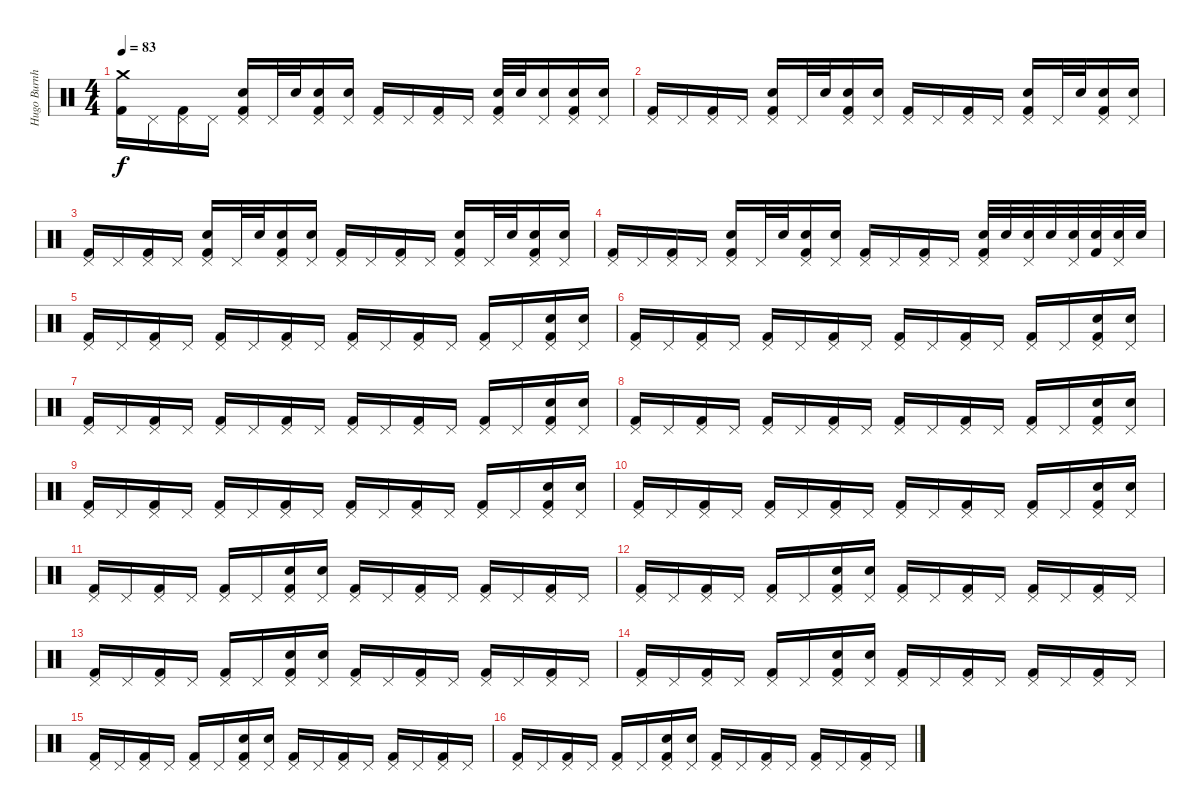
\track ("Hugo Burnham" "Hugo Burnh") {instrument percussion}
\staff {score}
\articulation defaults
\ts (4 4)
\tempo 83
\clef neutral
\ks c
("Crash medium (hit)" "Kick (hit) 2").16{dy f} "Pedal Hi-Hat (hit)".16 ("Pedal Hi-Hat (hit)" "Kick (hit) 2").16 "Pedal Hi-Hat (hit)".16 ("Pedal Hi-Hat (hit)" "Electric Snare (hit)" "Kick (hit) 2").16 "Pedal Hi-Hat (hit)".32 "Electric Snare (hit)".32 ("Pedal Hi-Hat (hit)" "Electric Snare (hit)" "Kick (hit) 2").16 ("Pedal Hi-Hat (hit)" "Electric Snare (hit)").16 ("Pedal Hi-Hat (hit)" "Kick (hit) 2").16 "Pedal Hi-Hat (hit)".16 ("Pedal Hi-Hat (hit)" "Kick (hit) 2").16 "Pedal Hi-Hat (hit)".16 ("Pedal Hi-Hat (hit)" "Electric Snare (hit)" "Kick (hit) 2").32 "Electric Snare (hit)".32 ("Pedal Hi-Hat (hit)" "Electric Snare (hit)").16 ("Pedal Hi-Hat (hit)" "Electric Snare (hit)" "Kick (hit) 2").16 ("Pedal Hi-Hat (hit)" "Electric Snare (hit)").16 |
("Pedal Hi-Hat (hit)" "Kick (hit) 2").16 "Pedal Hi-Hat (hit)".16 ("Pedal Hi-Hat (hit)" "Kick (hit) 2").16 "Pedal Hi-Hat (hit)".16 ("Pedal Hi-Hat (hit)" "Electric Snare (hit)" "Kick (hit) 2").16 "Pedal Hi-Hat (hit)".32 "Electric Snare (hit)".32 ("Pedal Hi-Hat (hit)" "Electric Snare (hit)" "Kick (hit) 2").16 ("Pedal Hi-Hat (hit)" "Electric Snare (hit)").16 ("Pedal Hi-Hat (hit)" "Kick (hit) 2").16 "Pedal Hi-Hat (hit)".16 ("Pedal Hi-Hat (hit)" "Kick (hit) 2").16 "Pedal Hi-Hat (hit)".16 ("Pedal Hi-Hat (hit)" "Electric Snare (hit)" "Kick (hit) 2").16 "Pedal Hi-Hat (hit)".32 "Electric Snare (hit)".32 ("Pedal Hi-Hat (hit)" "Electric Snare (hit)" "Kick (hit) 2").16 ("Pedal Hi-Hat (hit)" "Electric Snare (hit)").16 |
("Pedal Hi-Hat (hit)" "Kick (hit) 2").16 "Pedal Hi-Hat (hit)".16 ("Pedal Hi-Hat (hit)" "Kick (hit) 2").16 "Pedal Hi-Hat (hit)".16 ("Pedal Hi-Hat (hit)" "Electric Snare (hit)" "Kick (hit) 2").16 "Pedal Hi-Hat (hit)".32 "Electric Snare (hit)".32 ("Pedal Hi-Hat (hit)" "Electric Snare (hit)" "Kick (hit) 2").16 ("Pedal Hi-Hat (hit)" "Electric Snare (hit)").16 ("Pedal Hi-Hat (hit)" "Kick (hit) 2").16 "Pedal Hi-Hat (hit)".16 ("Pedal Hi-Hat (hit)" "Kick (hit) 2").16 "Pedal Hi-Hat (hit)".16 ("Pedal Hi-Hat (hit)" "Electric Snare (hit)" "Kick (hit) 2").16 "Pedal Hi-Hat (hit)".32 "Electric Snare (hit)".32 ("Pedal Hi-Hat (hit)" "Electric Snare (hit)" "Kick (hit) 2").16 ("Pedal Hi-Hat (hit)" "Electric Snare (hit)").16 |
("Pedal Hi-Hat (hit)" "Kick (hit) 2").16 "Pedal Hi-Hat (hit)".16 ("Pedal Hi-Hat (hit)" "Kick (hit) 2").16 "Pedal Hi-Hat (hit)".16 ("Pedal Hi-Hat (hit)" "Electric Snare (hit)" "Kick (hit) 2").16 "Pedal Hi-Hat (hit)".32 "Electric Snare (hit)".32 ("Pedal Hi-Hat (hit)" "Electric Snare (hit)" "Kick (hit) 2").16 ("Pedal Hi-Hat (hit)" "Electric Snare (hit)").16 ("Pedal Hi-Hat (hit)" "Kick (hit) 2").16 "Pedal Hi-Hat (hit)".16 ("Pedal Hi-Hat (hit)" "Kick (hit) 2").16 "Pedal Hi-Hat (hit)".16 ("Pedal Hi-Hat (hit)" "Electric Snare (hit)" "Kick (hit) 2").32 "Electric Snare (hit)".32 ("Pedal Hi-Hat (hit)" "Electric Snare (hit)").32 "Electric Snare (hit)".32 ("Pedal Hi-Hat (hit)" "Electric Snare (hit)").32 ("Electric Snare (hit)" "Kick (hit) 2").32 ("Pedal Hi-Hat (hit)" "Electric Snare (hit)").32 "Electric Snare (hit)".32 |
("Pedal Hi-Hat (hit)" "Kick (hit) 2").16 "Pedal Hi-Hat (hit)".16 ("Pedal Hi-Hat (hit)" "Kick (hit) 2").16 "Pedal Hi-Hat (hit)".16 ("Pedal Hi-Hat (hit)" "Kick (hit) 2").16 "Pedal Hi-Hat (hit)".16 ("Pedal Hi-Hat (hit)" "Kick (hit) 2").16 "Pedal Hi-Hat (hit)".16 ("Pedal Hi-Hat (hit)" "Kick (hit) 2").16 "Pedal Hi-Hat (hit)".16 ("Pedal Hi-Hat (hit)" "Kick (hit) 2").16 "Pedal Hi-Hat (hit)".16 ("Pedal Hi-Hat (hit)" "Kick (hit) 2").16 "Pedal Hi-Hat (hit)".16 ("Pedal Hi-Hat (hit)" "Electric Snare (hit)" "Kick (hit) 2").16 ("Pedal Hi-Hat (hit)" "Electric Snare (hit)").16 |
("Pedal Hi-Hat (hit)" "Kick (hit) 2").16 "Pedal Hi-Hat (hit)".16 ("Pedal Hi-Hat (hit)" "Kick (hit) 2").16 "Pedal Hi-Hat (hit)".16 ("Pedal Hi-Hat (hit)" "Kick (hit) 2").16 "Pedal Hi-Hat (hit)".16 ("Pedal Hi-Hat (hit)" "Kick (hit) 2").16 "Pedal Hi-Hat (hit)".16 ("Pedal Hi-Hat (hit)" "Kick (hit) 2").16 "Pedal Hi-Hat (hit)".16 ("Pedal Hi-Hat (hit)" "Kick (hit) 2").16 "Pedal Hi-Hat (hit)".16 ("Pedal Hi-Hat (hit)" "Kick (hit) 2").16 "Pedal Hi-Hat (hit)".16 ("Pedal Hi-Hat (hit)" "Electric Snare (hit)" "Kick (hit) 2").16 ("Pedal Hi-Hat (hit)" "Electric Snare (hit)").16 |
("Pedal Hi-Hat (hit)" "Kick (hit) 2").16 "Pedal Hi-Hat (hit)".16 ("Pedal Hi-Hat (hit)" "Kick (hit) 2").16 "Pedal Hi-Hat (hit)".16 ("Pedal Hi-Hat (hit)" "Kick (hit) 2").16 "Pedal Hi-Hat (hit)".16 ("Pedal Hi-Hat (hit)" "Kick (hit) 2").16 "Pedal Hi-Hat (hit)".16 ("Pedal Hi-Hat (hit)" "Kick (hit) 2").16 "Pedal Hi-Hat (hit)".16 ("Pedal Hi-Hat (hit)" "Kick (hit) 2").16 "Pedal Hi-Hat (hit)".16 ("Pedal Hi-Hat (hit)" "Kick (hit) 2").16 "Pedal Hi-Hat (hit)".16 ("Pedal Hi-Hat (hit)" "Electric Snare (hit)" "Kick (hit) 2").16 ("Pedal Hi-Hat (hit)" "Electric Snare (hit)").16 |
("Pedal Hi-Hat (hit)" "Kick (hit) 2").16 "Pedal Hi-Hat (hit)".16 ("Pedal Hi-Hat (hit)" "Kick (hit) 2").16 "Pedal Hi-Hat (hit)".16 ("Pedal Hi-Hat (hit)" "Kick (hit) 2").16 "Pedal Hi-Hat (hit)".16 ("Pedal Hi-Hat (hit)" "Kick (hit) 2").16 "Pedal Hi-Hat (hit)".16 ("Pedal Hi-Hat (hit)" "Kick (hit) 2").16 "Pedal Hi-Hat (hit)".16 ("Pedal Hi-Hat (hit)" "Kick (hit) 2").16 "Pedal Hi-Hat (hit)".16 ("Pedal Hi-Hat (hit)" "Kick (hit) 2").16 "Pedal Hi-Hat (hit)".16 ("Pedal Hi-Hat (hit)" "Electric Snare (hit)" "Kick (hit) 2").16 ("Pedal Hi-Hat (hit)" "Electric Snare (hit)").16 |
("Pedal Hi-Hat (hit)" "Kick (hit) 2").16 "Pedal Hi-Hat (hit)".16 ("Pedal Hi-Hat (hit)" "Kick (hit) 2").16 "Pedal Hi-Hat (hit)".16 ("Pedal Hi-Hat (hit)" "Kick (hit) 2").16 "Pedal Hi-Hat (hit)".16 ("Pedal Hi-Hat (hit)" "Kick (hit) 2").16 "Pedal Hi-Hat (hit)".16 ("Pedal Hi-Hat (hit)" "Kick (hit) 2").16 "Pedal Hi-Hat (hit)".16 ("Pedal Hi-Hat (hit)" "Kick (hit) 2").16 "Pedal Hi-Hat (hit)".16 ("Pedal Hi-Hat (hit)" "Kick (hit) 2").16 "Pedal Hi-Hat (hit)".16 ("Pedal Hi-Hat (hit)" "Electric Snare (hit)" "Kick (hit) 2").16 ("Pedal Hi-Hat (hit)" "Electric Snare (hit)").16 |
("Pedal Hi-Hat (hit)" "Kick (hit) 2").16 "Pedal Hi-Hat (hit)".16 ("Pedal Hi-Hat (hit)" "Kick (hit) 2").16 "Pedal Hi-Hat (hit)".16 ("Pedal Hi-Hat (hit)" "Kick (hit) 2").16 "Pedal Hi-Hat (hit)".16 ("Pedal Hi-Hat (hit)" "Kick (hit) 2").16 "Pedal Hi-Hat (hit)".16 ("Pedal Hi-Hat (hit)" "Kick (hit) 2").16 "Pedal Hi-Hat (hit)".16 ("Pedal Hi-Hat (hit)" "Kick (hit) 2").16 "Pedal Hi-Hat (hit)".16 ("Pedal Hi-Hat (hit)" "Kick (hit) 2").16 "Pedal Hi-Hat (hit)".16 ("Pedal Hi-Hat (hit)" "Electric Snare (hit)" "Kick (hit) 2").16 ("Pedal Hi-Hat (hit)" "Electric Snare (hit)").16 |
("Pedal Hi-Hat (hit)" "Kick (hit) 2").16 "Pedal Hi-Hat (hit)".16 ("Pedal Hi-Hat (hit)" "Kick (hit) 2").16 "Pedal Hi-Hat (hit)".16 ("Pedal Hi-Hat (hit)" "Kick (hit) 2").16 "Pedal Hi-Hat (hit)".16 ("Pedal Hi-Hat (hit)" "Electric Snare (hit)" "Kick (hit) 2").16 ("Pedal Hi-Hat (hit)" "Electric Snare (hit)").16 ("Pedal Hi-Hat (hit)" "Kick (hit) 2").16 "Pedal Hi-Hat (hit)".16 ("Pedal Hi-Hat (hit)" "Kick (hit) 2").16 "Pedal Hi-Hat (hit)".16 ("Pedal Hi-Hat (hit)" "Kick (hit) 2").16 "Pedal Hi-Hat (hit)".16 ("Pedal Hi-Hat (hit)" "Kick (hit) 2").16 "Pedal Hi-Hat (hit)".16 |
("Pedal Hi-Hat (hit)" "Kick (hit) 2").16 "Pedal Hi-Hat (hit)".16 ("Pedal Hi-Hat (hit)" "Kick (hit) 2").16 "Pedal Hi-Hat (hit)".16 ("Pedal Hi-Hat (hit)" "Kick (hit) 2").16 "Pedal Hi-Hat (hit)".16 ("Pedal Hi-Hat (hit)" "Electric Snare (hit)" "Kick (hit) 2").16 ("Pedal Hi-Hat (hit)" "Electric Snare (hit)").16 ("Pedal Hi-Hat (hit)" "Kick (hit) 2").16 "Pedal Hi-Hat (hit)".16 ("Pedal Hi-Hat (hit)" "Kick (hit) 2").16 "Pedal Hi-Hat (hit)".16 ("Pedal Hi-Hat (hit)" "Kick (hit) 2").16 "Pedal Hi-Hat (hit)".16 ("Pedal Hi-Hat (hit)" "Kick (hit) 2").16 "Pedal Hi-Hat (hit)".16 |
("Pedal Hi-Hat (hit)" "Kick (hit) 2").16 "Pedal Hi-Hat (hit)".16 ("Pedal Hi-Hat (hit)" "Kick (hit) 2").16 "Pedal Hi-Hat (hit)".16 ("Pedal Hi-Hat (hit)" "Kick (hit) 2").16 "Pedal Hi-Hat (hit)".16 ("Pedal Hi-Hat (hit)" "Electric Snare (hit)" "Kick (hit) 2").16 ("Pedal Hi-Hat (hit)" "Electric Snare (hit)").16 ("Pedal Hi-Hat (hit)" "Kick (hit) 2").16 "Pedal Hi-Hat (hit)".16 ("Pedal Hi-Hat (hit)" "Kick (hit) 2").16 "Pedal Hi-Hat (hit)".16 ("Pedal Hi-Hat (hit)" "Kick (hit) 2").16 "Pedal Hi-Hat (hit)".16 ("Pedal Hi-Hat (hit)" "Kick (hit) 2").16 "Pedal Hi-Hat (hit)".16 |
("Pedal Hi-Hat (hit)" "Kick (hit) 2").16 "Pedal Hi-Hat (hit)".16 ("Pedal Hi-Hat (hit)" "Kick (hit) 2").16 "Pedal Hi-Hat (hit)".16 ("Pedal Hi-Hat (hit)" "Kick (hit) 2").16 "Pedal Hi-Hat (hit)".16 ("Pedal Hi-Hat (hit)" "Electric Snare (hit)" "Kick (hit) 2").16 ("Pedal Hi-Hat (hit)" "Electric Snare (hit)").16 ("Pedal Hi-Hat (hit)" "Kick (hit) 2").16 "Pedal Hi-Hat (hit)".16 ("Pedal Hi-Hat (hit)" "Kick (hit) 2").16 "Pedal Hi-Hat (hit)".16 ("Pedal Hi-Hat (hit)" "Kick (hit) 2").16 "Pedal Hi-Hat (hit)".16 ("Pedal Hi-Hat (hit)" "Kick (hit) 2").16 "Pedal Hi-Hat (hit)".16 |
("Pedal Hi-Hat (hit)" "Kick (hit) 2").16 "Pedal Hi-Hat (hit)".16 ("Pedal Hi-Hat (hit)" "Kick (hit) 2").16 "Pedal Hi-Hat (hit)".16 ("Pedal Hi-Hat (hit)" "Kick (hit) 2").16 "Pedal Hi-Hat (hit)".16 ("Pedal Hi-Hat (hit)" "Electric Snare (hit)" "Kick (hit) 2").16 ("Pedal Hi-Hat (hit)" "Electric Snare (hit)").16 ("Pedal Hi-Hat (hit)" "Kick (hit) 2").16 "Pedal Hi-Hat (hit)".16 ("Pedal Hi-Hat (hit)" "Kick (hit) 2").16 "Pedal Hi-Hat (hit)".16 ("Pedal Hi-Hat (hit)" "Kick (hit) 2").16 "Pedal Hi-Hat (hit)".16 ("Pedal Hi-Hat (hit)" "Kick (hit) 2").16 "Pedal Hi-Hat (hit)".16 |
("Pedal Hi-Hat (hit)" "Kick (hit) 2").16 "Pedal Hi-Hat (hit)".16 ("Pedal Hi-Hat (hit)" "Kick (hit) 2").16 "Pedal Hi-Hat (hit)".16 ("Pedal Hi-Hat (hit)" "Kick (hit) 2").16 "Pedal Hi-Hat (hit)".16 ("Pedal Hi-Hat (hit)" "Electric Snare (hit)" "Kick (hit) 2").16 ("Pedal Hi-Hat (hit)" "Electric Snare (hit)").16 ("Pedal Hi-Hat (hit)" "Kick (hit) 2").16 "Pedal Hi-Hat (hit)".16 ("Pedal Hi-Hat (hit)" "Kick (hit) 2").16 "Pedal Hi-Hat (hit)".16 ("Pedal Hi-Hat (hit)" "Kick (hit) 2").16 "Pedal Hi-Hat (hit)".16 ("Pedal Hi-Hat (hit)" "Kick (hit) 2").16 "Pedal Hi-Hat (hit)".16
